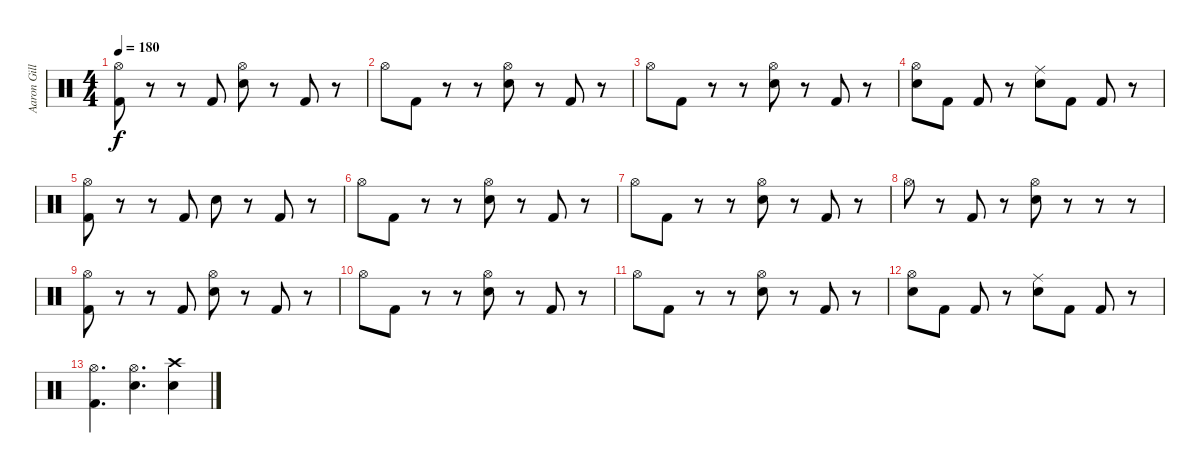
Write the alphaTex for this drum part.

\track ("Aaron Gillespie 1" "Aaron Gill") {instrument percussion}
\staff {score}
\articulation defaults
\ts (4 4)
\tempo 180
\clef neutral
\ks c
("Hi-Hat (open)" "Kick (hit) 2").8{dy f} r.8 r.8 "Kick (hit) 2".8 ("Hi-Hat (open)" "Snare (hit) 2").8 r.8 "Kick (hit) 2".8 r.8 |
"Hi-Hat (open)".8 "Kick (hit) 2".8 r.8 r.8 ("Hi-Hat (open)" "Snare (hit) 2").8 r.8 "Kick (hit) 2".8 r.8 |
"Hi-Hat (open)".8 "Kick (hit) 2".8 r.8 r.8 ("Hi-Hat (open)" "Snare (hit) 2").8 r.8 "Kick (hit) 2".8 r.8 |
("Hi-Hat (open)" "Snare (hit) 2").8 "Kick (hit) 2".8 "Kick (hit) 2".8 r.8 ("Ride (middle)" "Snare (hit) 2").8 "Kick (hit) 2".8 "Kick (hit) 2".8 r.8 |
("Hi-Hat (open)" "Kick (hit) 2").8 r.8 r.8 "Kick (hit) 2".8 "Snare (hit) 2".8 r.8 "Kick (hit) 2".8 r.8 |
"Hi-Hat (open)".8 "Kick (hit) 2".8 r.8 r.8 ("Hi-Hat (open)" "Snare (hit) 2").8 r.8 "Kick (hit) 2".8 r.8 |
"Hi-Hat (open)".8 "Kick (hit) 2".8 r.8 r.8 ("Hi-Hat (open)" "Snare (hit) 2").8 r.8 "Kick (hit) 2".8 r.8 |
"Hi-Hat (open)".8 r.8 "Kick (hit) 2".8 r.8 ("Hi-Hat (open)" "Snare (hit) 2").8 r.8 r.8 r.8 |
("Hi-Hat (open)" "Kick (hit) 2").8 r.8 r.8 "Kick (hit) 2".8 ("Hi-Hat (open)" "Snare (hit) 2").8 r.8 "Kick (hit) 2".8 r.8 |
"Hi-Hat (open)".8 "Kick (hit) 2".8 r.8 r.8 ("Hi-Hat (open)" "Snare (hit) 2").8 r.8 "Kick (hit) 2".8 r.8 |
"Hi-Hat (open)".8 "Kick (hit) 2".8 r.8 r.8 ("Hi-Hat (open)" "Snare (hit) 2").8 r.8 "Kick (hit) 2".8 r.8 |
("Hi-Hat (open)" "Snare (hit) 2").8 "Kick (hit) 2".8 "Kick (hit) 2".8 r.8 ("Ride (middle)" "Snare (hit) 2").8 "Kick (hit) 2".8 "Kick (hit) 2".8 r.8 |
("Hi-Hat (open)" "Kick (hit) 2").4{d} ("Hi-Hat (open)" "Snare (hit) 2").4{d} ("Crash high (hit)" "Snare (hit) 2").4
